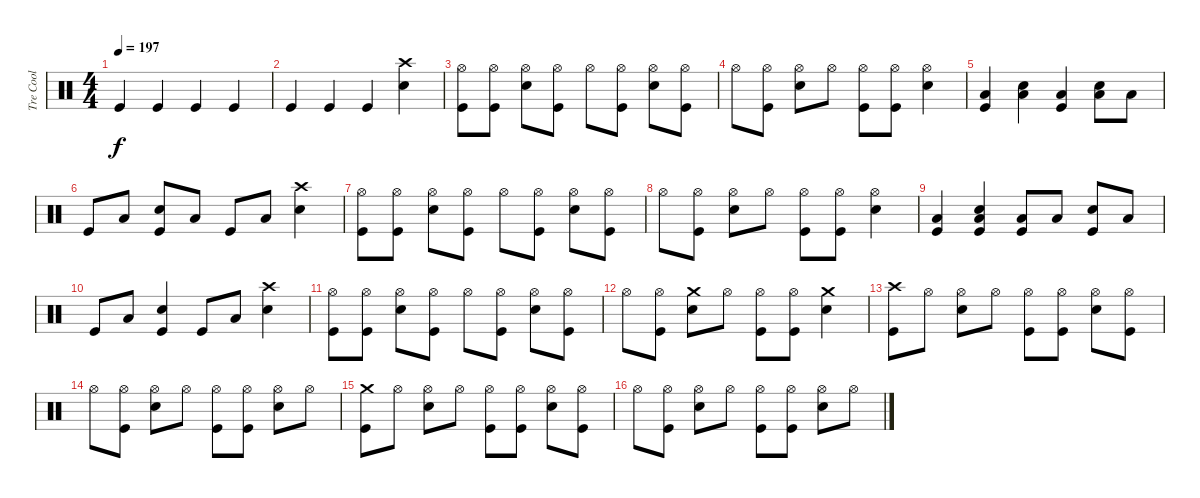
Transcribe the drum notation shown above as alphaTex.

\track ("Tre Cool" "Tre Cool") {instrument percussion}
\staff {score}
\articulation defaults
\ts (4 4)
\tempo 197
\clef neutral
\ks c "Kick (hit)".4{dy f} "Kick (hit)".4 "Kick (hit)".4 "Kick (hit)".4
|
"Kick (hit)".4 "Kick (hit)".4 "Kick (hit)".4 ("Crash high (hit)" "Electric Snare (hit)").4 |
("Hi-Hat (open)" "Kick (hit)").8 ("Hi-Hat (open)" "Kick (hit)").8 ("Hi-Hat (open)" "Electric Snare (hit)").8 ("Hi-Hat (open)" "Kick (hit)").8 "Hi-Hat (open)".8 ("Hi-Hat (open)" "Kick (hit)").8 ("Hi-Hat (open)" "Electric Snare (hit)").8 ("Hi-Hat (open)" "Kick (hit)").8 |
"Hi-Hat (open)".8 ("Hi-Hat (open)" "Kick (hit)").8 ("Hi-Hat (open)" "Electric Snare (hit)").8 "Hi-Hat (open)".8 ("Hi-Hat (open)" "Kick (hit)").8 ("Hi-Hat (open)" "Kick (hit)").8 ("Hi-Hat (open)" "Electric Snare (hit)").4 |
("Low Floor Tom (hit)" "Kick (hit)").4 ("Electric Snare (hit)" "Low Floor Tom (hit)").4 ("Low Floor Tom (hit)" "Kick (hit)").4 ("Electric Snare (hit)" "Low Floor Tom (hit)").8 "Low Floor Tom (hit)".8 |
"Kick (hit)".8 "Low Floor Tom (hit)".8 ("Electric Snare (hit)" "Kick (hit)").8 "Low Floor Tom (hit)".8 "Kick (hit)".8 "Low Floor Tom (hit)".8 ("Crash high (hit)" "Electric Snare (hit)").4 |
("Hi-Hat (open)" "Kick (hit)").8 ("Hi-Hat (open)" "Kick (hit)").8 ("Hi-Hat (open)" "Electric Snare (hit)").8 ("Hi-Hat (open)" "Kick (hit)").8 "Hi-Hat (open)".8 ("Hi-Hat (open)" "Kick (hit)").8 ("Hi-Hat (open)" "Electric Snare (hit)").8 ("Hi-Hat (open)" "Kick (hit)").8 |
"Hi-Hat (open)".8 ("Hi-Hat (open)" "Kick (hit)").8 ("Hi-Hat (open)" "Electric Snare (hit)").8 "Hi-Hat (open)".8 ("Hi-Hat (open)" "Kick (hit)").8 ("Hi-Hat (open)" "Kick (hit)").8 ("Hi-Hat (open)" "Electric Snare (hit)").4 |
("Low Floor Tom (hit)" "Kick (hit)").4 ("Electric Snare (hit)" "Low Floor Tom (hit)" "Kick (hit)").4 ("Low Floor Tom (hit)" "Kick (hit)").8 "Low Floor Tom (hit)".8 ("Electric Snare (hit)" "Kick (hit)").8 "Low Floor Tom (hit)".8 |
"Kick (hit)".8 "Low Floor Tom (hit)".8 ("Electric Snare (hit)" "Kick (hit)").4 "Kick (hit)".8 "Low Floor Tom (hit)".8 ("Crash high (hit)" "Electric Snare (hit)").4 |
("Hi-Hat (open)" "Kick (hit)").8 ("Hi-Hat (open)" "Kick (hit)").8 ("Hi-Hat (open)" "Electric Snare (hit)").8 ("Hi-Hat (open)" "Kick (hit)").8 "Hi-Hat (open)".8 ("Hi-Hat (open)" "Kick (hit)").8 ("Hi-Hat (open)" "Electric Snare (hit)").8 ("Hi-Hat (open)" "Kick (hit)").8 |
"Hi-Hat (open)".8 ("Hi-Hat (open)" "Kick (hit)").8 ("Crash medium (hit)" "Electric Snare (hit)").8 "Hi-Hat (open)".8 ("Hi-Hat (open)" "Kick (hit)").8 ("Hi-Hat (open)" "Kick (hit)").8 ("Crash medium (hit)" "Electric Snare (hit)").4 |
("Crash high (hit)" "Kick (hit)").8 "Hi-Hat (open)".8 ("Hi-Hat (open)" "Electric Snare (hit)").8 "Hi-Hat (open)".8 ("Hi-Hat (open)" "Kick (hit)").8 ("Hi-Hat (open)" "Kick (hit)").8 ("Hi-Hat (open)" "Electric Snare (hit)").8 ("Hi-Hat (open)" "Kick (hit)").8 |
"Hi-Hat (open)".8 ("Hi-Hat (open)" "Kick (hit)").8 ("Hi-Hat (open)" "Electric Snare (hit)").8 "Hi-Hat (open)".8 ("Hi-Hat (open)" "Kick (hit)").8 ("Hi-Hat (open)" "Kick (hit)").8 ("Hi-Hat (open)" "Electric Snare (hit)").8 "Hi-Hat (open)".8 |
("Crash medium (hit)" "Kick (hit)").8 "Hi-Hat (open)".8 ("Hi-Hat (open)" "Electric Snare (hit)").8 "Hi-Hat (open)".8 ("Hi-Hat (open)" "Kick (hit)").8 ("Hi-Hat (open)" "Kick (hit)").8 ("Hi-Hat (open)" "Electric Snare (hit)").8 ("Hi-Hat (open)" "Kick (hit)").8 |
"Hi-Hat (open)".8 ("Hi-Hat (open)" "Kick (hit)").8 ("Hi-Hat (open)" "Electric Snare (hit)").8 "Hi-Hat (open)".8 ("Hi-Hat (open)" "Kick (hit)").8 ("Hi-Hat (open)" "Kick (hit)").8 ("Hi-Hat (open)" "Electric Snare (hit)").8 "Hi-Hat (open)".8
